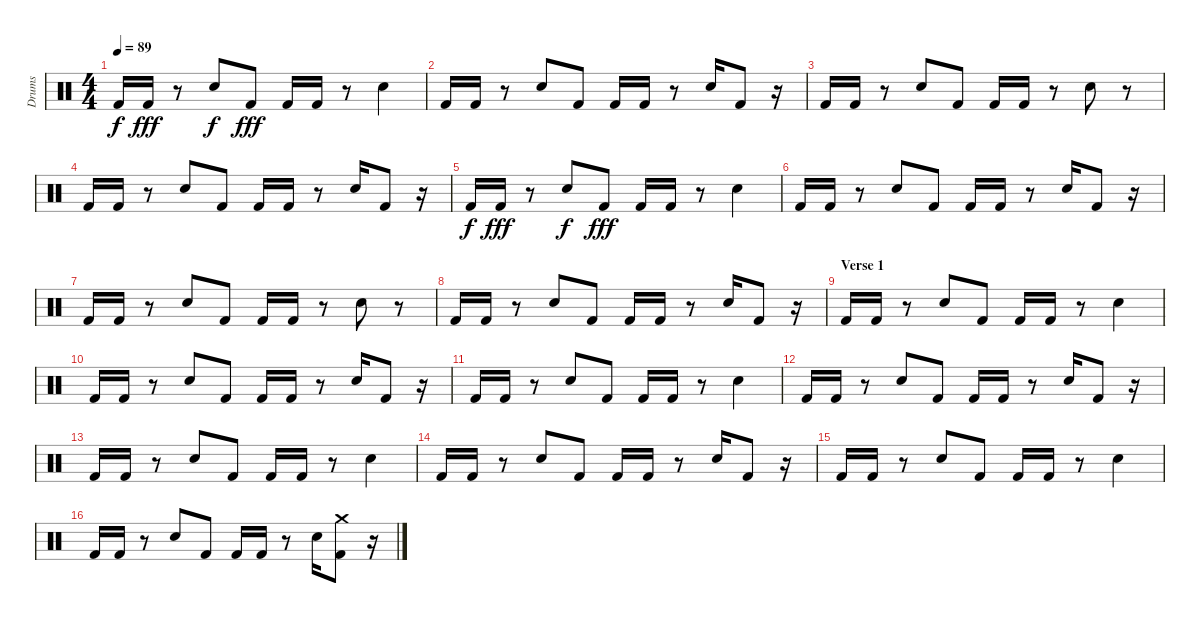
\track ("Drums" "Drums") {instrument percussion}
\staff {score}
\articulation defaults
\ts (4 4)
\tempo 89
\clef neutral
\ks c "Kick (hit) 2".16{dy f} "Kick (hit) 2".16{dy fff}
r.8 "Electric Snare (hit)".8{dy f} "Kick (hit) 2".8{dy fff} "Kick (hit) 2".16 "Kick (hit) 2".16 r.8 "Electric Snare (hit)".4 |
"Kick (hit) 2".16 "Kick (hit) 2".16 r.8 "Electric Snare (hit)".8 "Kick (hit) 2".8 "Kick (hit) 2".16 "Kick (hit) 2".16 r.8 "Electric Snare (hit)".16 "Kick (hit) 2".8 r.16 |
"Kick (hit) 2".16 "Kick (hit) 2".16 r.8 "Electric Snare (hit)".8 "Kick (hit) 2".8 "Kick (hit) 2".16 "Kick (hit) 2".16 r.8 "Electric Snare (hit)".8 r.8 |
"Kick (hit) 2".16 "Kick (hit) 2".16 r.8 "Electric Snare (hit)".8 "Kick (hit) 2".8 "Kick (hit) 2".16 "Kick (hit) 2".16 r.8 "Electric Snare (hit)".16 "Kick (hit) 2".8 r.16 |
"Kick (hit) 2".16{dy f} "Kick (hit) 2".16{dy fff} r.8 "Electric Snare (hit)".8{dy f} "Kick (hit) 2".8{dy fff} "Kick (hit) 2".16 "Kick (hit) 2".16 r.8 "Electric Snare (hit)".4 |
"Kick (hit) 2".16 "Kick (hit) 2".16 r.8 "Electric Snare (hit)".8 "Kick (hit) 2".8 "Kick (hit) 2".16 "Kick (hit) 2".16 r.8 "Electric Snare (hit)".16 "Kick (hit) 2".8 r.16 |
"Kick (hit) 2".16 "Kick (hit) 2".16 r.8 "Electric Snare (hit)".8 "Kick (hit) 2".8 "Kick (hit) 2".16 "Kick (hit) 2".16 r.8 "Electric Snare (hit)".8 r.8 |
"Kick (hit) 2".16 "Kick (hit) 2".16 r.8 "Electric Snare (hit)".8 "Kick (hit) 2".8 "Kick (hit) 2".16 "Kick (hit) 2".16 r.8 "Electric Snare (hit)".16 "Kick (hit) 2".8 r.16 |
\section ("" "Verse 1")
"Kick (hit) 2".16 "Kick (hit) 2".16 r.8 "Electric Snare (hit)".8 "Kick (hit) 2".8 "Kick (hit) 2".16 "Kick (hit) 2".16 r.8 "Electric Snare (hit)".4 |
"Kick (hit) 2".16 "Kick (hit) 2".16 r.8 "Electric Snare (hit)".8 "Kick (hit) 2".8 "Kick (hit) 2".16 "Kick (hit) 2".16 r.8 "Electric Snare (hit)".16 "Kick (hit) 2".8 r.16 |
"Kick (hit) 2".16 "Kick (hit) 2".16 r.8 "Electric Snare (hit)".8 "Kick (hit) 2".8 "Kick (hit) 2".16 "Kick (hit) 2".16 r.8 "Electric Snare (hit)".4 |
"Kick (hit) 2".16 "Kick (hit) 2".16 r.8 "Electric Snare (hit)".8 "Kick (hit) 2".8 "Kick (hit) 2".16 "Kick (hit) 2".16 r.8 "Electric Snare (hit)".16 "Kick (hit) 2".8 r.16 |
"Kick (hit) 2".16 "Kick (hit) 2".16 r.8 "Electric Snare (hit)".8 "Kick (hit) 2".8 "Kick (hit) 2".16 "Kick (hit) 2".16 r.8 "Electric Snare (hit)".4 |
"Kick (hit) 2".16 "Kick (hit) 2".16 r.8 "Electric Snare (hit)".8 "Kick (hit) 2".8 "Kick (hit) 2".16 "Kick (hit) 2".16 r.8 "Electric Snare (hit)".16 "Kick (hit) 2".8 r.16 |
"Kick (hit) 2".16 "Kick (hit) 2".16 r.8 "Electric Snare (hit)".8 "Kick (hit) 2".8 "Kick (hit) 2".16 "Kick (hit) 2".16 r.8 "Electric Snare (hit)".4 |
"Kick (hit) 2".16 "Kick (hit) 2".16 r.8 "Electric Snare (hit)".8 "Kick (hit) 2".8 "Kick (hit) 2".16 "Kick (hit) 2".16 r.8 "Electric Snare (hit)".16 ("Crash medium (hit)" "Kick (hit) 2").8 r.16
